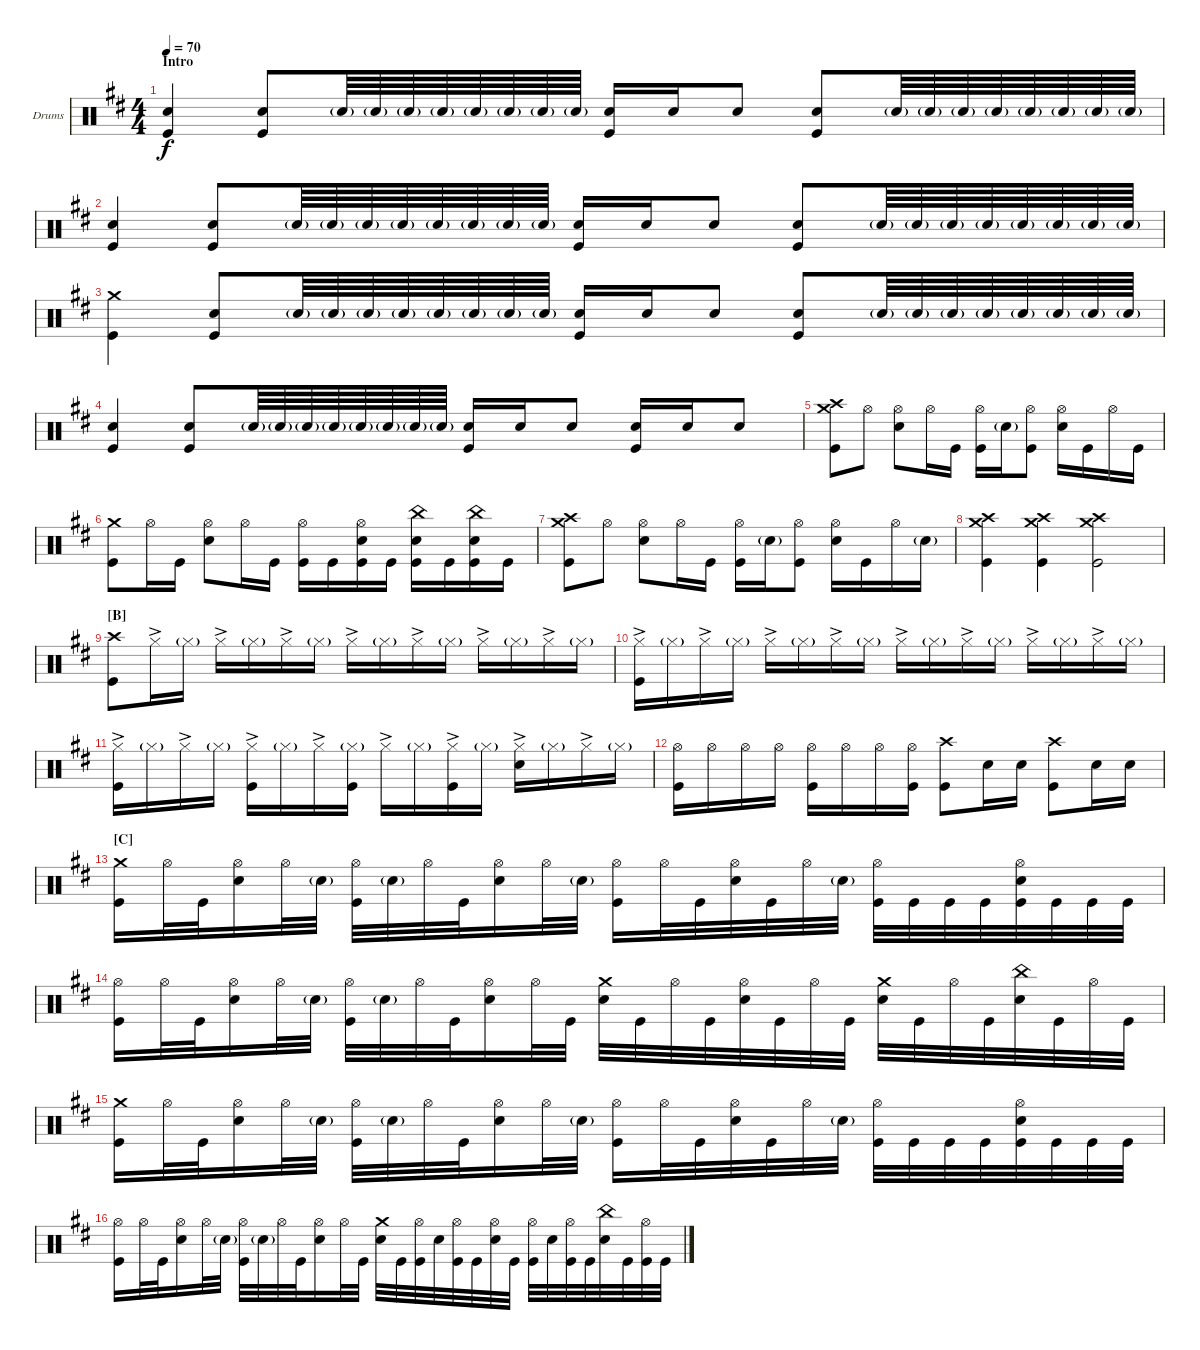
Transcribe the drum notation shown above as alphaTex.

\bracketExtendMode groupsimilarinstruments
\firstSystemTrackNameOrientation horizontal
\otherSystemsTrackNameOrientation horizontal
\track ("Drums" "Drums") {instrument percussion}
\staff {score}
\articulation defaults
\ts (4 4)
\beaming (8 2 2 2 2)
\section ("" "Intro")
\tempo 70
\clef neutral
\ks bminor
("Snare (hit) 2" "Kick (hit)").4{dy f} ("Snare (hit) 2" "Kick (hit)").8 "Snare (hit) 2"{g}.64 "Snare (hit) 2"{g}.64 "Snare (hit) 2"{g}.64 "Snare (hit) 2"{g}.64 "Snare (hit) 2"{g}.64 "Snare (hit) 2"{g}.64 "Snare (hit) 2"{g}.64 "Snare (hit) 2"{g}.64 ("Snare (hit) 2" "Kick (hit)").16 "Snare (hit) 2".16 "Snare (hit) 2".8 ("Snare (hit) 2" "Kick (hit)").8 "Snare (hit) 2"{g}.64 "Snare (hit) 2"{g}.64 "Snare (hit) 2"{g}.64 "Snare (hit) 2"{g}.64 "Snare (hit) 2"{g}.64 "Snare (hit) 2"{g}.64 "Snare (hit) 2"{g}.64 "Snare (hit) 2"{g}.64 |
("Snare (hit) 2" "Kick (hit)").4 ("Snare (hit) 2" "Kick (hit)").8 "Snare (hit) 2"{g}.64 "Snare (hit) 2"{g}.64 "Snare (hit) 2"{g}.64 "Snare (hit) 2"{g}.64 "Snare (hit) 2"{g}.64 "Snare (hit) 2"{g}.64 "Snare (hit) 2"{g}.64 "Snare (hit) 2"{g}.64 ("Snare (hit) 2" "Kick (hit)").16 "Snare (hit) 2".16 "Snare (hit) 2".8 ("Snare (hit) 2" "Kick (hit)").8 "Snare (hit) 2"{g}.64 "Snare (hit) 2"{g}.64 "Snare (hit) 2"{g}.64 "Snare (hit) 2"{g}.64 "Snare (hit) 2"{g}.64 "Snare (hit) 2"{g}.64 "Snare (hit) 2"{g}.64 "Snare (hit) 2"{g}.64 |
("Kick (hit)" "Crash medium (hit)").4 ("Snare (hit) 2" "Kick (hit)").8 "Snare (hit) 2"{g}.64 "Snare (hit) 2"{g}.64 "Snare (hit) 2"{g}.64 "Snare (hit) 2"{g}.64 "Snare (hit) 2"{g}.64 "Snare (hit) 2"{g}.64 "Snare (hit) 2"{g}.64 "Snare (hit) 2"{g}.64 ("Snare (hit) 2" "Kick (hit)").16 "Snare (hit) 2".16 "Snare (hit) 2".8 ("Snare (hit) 2" "Kick (hit)").8 "Snare (hit) 2"{g}.64 "Snare (hit) 2"{g}.64 "Snare (hit) 2"{g}.64 "Snare (hit) 2"{g}.64 "Snare (hit) 2"{g}.64 "Snare (hit) 2"{g}.64 "Snare (hit) 2"{g}.64 "Snare (hit) 2"{g}.64 |
("Snare (hit) 2" "Kick (hit)").4 ("Snare (hit) 2" "Kick (hit)").8 "Snare (hit) 2"{g}.64 "Snare (hit) 2"{g}.64 "Snare (hit) 2"{g}.64 "Snare (hit) 2"{g}.64 "Snare (hit) 2"{g}.64 "Snare (hit) 2"{g}.64 "Snare (hit) 2"{g}.64 "Snare (hit) 2"{g}.64 ("Snare (hit) 2" "Kick (hit)").16 "Snare (hit) 2".16 "Snare (hit) 2".8 ("Snare (hit) 2" "Kick (hit)").16 "Snare (hit) 2".16 "Snare (hit) 2".8 |
("Crash high (hit)" "Kick (hit)" "Crash medium (hit)").8 "Hi-Hat (open)".8 ("Hi-Hat (open)" "Snare (hit) 2").8 "Hi-Hat (open)".16 "Kick (hit)".16 ("Hi-Hat (open)" "Kick (hit)").16 "Snare (hit) 2"{g}.16 ("Hi-Hat (open)" "Kick (hit)").8 ("Hi-Hat (open)" "Snare (hit) 2").16 "Kick (hit)".16 "Hi-Hat (open)".16 "Kick (hit)".16 |
("Kick (hit)" "Crash medium (hit)").8 "Hi-Hat (open)".16 "Kick (hit)".16 ("Hi-Hat (open)" "Snare (hit) 2").8 "Hi-Hat (open)".16 "Kick (hit)".16 ("Hi-Hat (open)" "Kick (hit)").16 "Kick (hit)".16 ("Hi-Hat (open)" "Kick (hit)" "Snare (hit) 2").16 "Kick (hit)".16 ("China (hit)" "Snare (hit) 2" "Kick (hit)").16 "Kick (hit)".16 ("China (hit)" "Snare (hit) 2" "Kick (hit)").16 "Kick (hit)".16 |
("Crash high (hit)" "Kick (hit)" "Crash medium (hit)").8 "Hi-Hat (open)".8 ("Hi-Hat (open)" "Snare (hit) 2").8 "Hi-Hat (open)".16 "Kick (hit)".16 ("Hi-Hat (open)" "Kick (hit)").16 "Snare (hit) 2"{g}.16 ("Hi-Hat (open)" "Kick (hit)").8 ("Hi-Hat (open)" "Snare (hit) 2").16 "Kick (hit)".16 "Hi-Hat (open)".16 "Snare (hit) 2"{g}.16 |
("Crash high (hit)" "Kick (hit)" "Crash medium (hit)").4 ("Crash high (hit)" "Kick (hit)" "Crash medium (hit)").4 ("Crash high (hit)" "Kick (hit)" "Crash medium (hit)").2 |
\section ("B" "")
("Crash high (hit)" "Kick (hit)").8 "Hi-Hat (closed)"{ac}.16 "Hi-Hat (closed)"{g}.16 "Hi-Hat (closed)"{ac}.16 "Hi-Hat (closed)"{g}.16 "Hi-Hat (closed)"{ac}.16 "Hi-Hat (closed)"{g}.16 "Hi-Hat (closed)"{ac}.16 "Hi-Hat (closed)"{g}.16 "Hi-Hat (closed)"{ac}.16 "Hi-Hat (closed)"{g}.16 "Hi-Hat (closed)"{ac}.16 "Hi-Hat (closed)"{g}.16 "Hi-Hat (closed)"{ac}.16 "Hi-Hat (closed)"{g}.16 |
("Hi-Hat (closed)"{ac} "Kick (hit)").16 "Hi-Hat (closed)"{g}.16 "Hi-Hat (closed)"{ac}.16 "Hi-Hat (closed)"{g}.16 "Hi-Hat (closed)"{ac}.16 "Hi-Hat (closed)"{g}.16 "Hi-Hat (closed)"{ac}.16 "Hi-Hat (closed)"{g}.16 "Hi-Hat (closed)"{ac}.16 "Hi-Hat (closed)"{g}.16 "Hi-Hat (closed)"{ac}.16 "Hi-Hat (closed)"{g}.16 "Hi-Hat (closed)"{ac}.16 "Hi-Hat (closed)"{g}.16 "Hi-Hat (closed)"{ac}.16 "Hi-Hat (closed)"{g}.16 |
("Hi-Hat (closed)"{ac} "Kick (hit)").16 "Hi-Hat (closed)"{g}.16 "Hi-Hat (closed)"{ac}.16 "Hi-Hat (closed)"{g}.16 ("Hi-Hat (closed)"{ac} "Kick (hit)").16 "Hi-Hat (closed)"{g}.16 "Hi-Hat (closed)"{ac}.16 ("Hi-Hat (closed)"{g} "Kick (hit)").16 "Hi-Hat (closed)"{ac}.16 "Hi-Hat (closed)"{g}.16 ("Hi-Hat (closed)"{ac} "Kick (hit)").16 "Hi-Hat (closed)"{g}.16 ("Hi-Hat (closed)"{ac} "Snare (hit) 2").16 "Hi-Hat (closed)"{g}.16 "Hi-Hat (closed)"{ac}.16 "Hi-Hat (closed)"{g}.16 |
("Hi-Hat (open)" "Kick (hit)").16 "Hi-Hat (open)".16 "Hi-Hat (open)".16 "Hi-Hat (open)".16 ("Hi-Hat (open)" "Kick (hit)").16 "Hi-Hat (open)".16 "Hi-Hat (open)".16 ("Kick (hit)" "Hi-Hat (open)").16 ("Crash high (hit)" "Kick (hit)").8 "Snare (hit) 2".16 "Snare (hit) 2".16 ("Crash high (hit)" "Kick (hit)").8 "Snare (hit) 2".16 "Snare (hit) 2".16 |
\section ("C" "")
("Kick (hit)" "Crash medium (hit)").16 "Hi-Hat (open)".32 "Kick (hit)".32 ("Hi-Hat (open)" "Snare (hit) 2").16 "Hi-Hat (open)".32 "Snare (hit) 2"{g}.32 ("Hi-Hat (open)" "Kick (hit)").32 "Snare (hit) 2"{g}.32 "Hi-Hat (open)".32 "Kick (hit)".32 ("Hi-Hat (open)" "Snare (hit) 2").16 "Hi-Hat (open)".32 "Snare (hit) 2"{g}.32 ("Kick (hit)" "Hi-Hat (open)").16 "Hi-Hat (open)".32 "Kick (hit)".32 ("Hi-Hat (open)" "Snare (hit) 2").32 "Kick (hit)".32 "Hi-Hat (open)".32 "Snare (hit) 2"{g}.32 ("Hi-Hat (open)" "Kick (hit)").32 "Kick (hit)".32 "Kick (hit)".32 "Kick (hit)".32 ("Hi-Hat (open)" "Kick (hit)" "Snare (hit) 2").32 "Kick (hit)".32 "Kick (hit)".32 "Kick (hit)".32 |
("Kick (hit)" "Hi-Hat (open)").16 "Hi-Hat (open)".32 "Kick (hit)".32 ("Hi-Hat (open)" "Snare (hit) 2").16 "Hi-Hat (open)".32 "Snare (hit) 2"{g}.32 ("Hi-Hat (open)" "Kick (hit)").32 "Snare (hit) 2"{g}.32 "Hi-Hat (open)".32 "Kick (hit)".32 ("Hi-Hat (open)" "Snare (hit) 2").16 "Hi-Hat (open)".32 "Kick (hit)".32 ("Snare (hit) 2" "Crash medium (hit)").32 "Kick (hit)".32 "Hi-Hat (open)".32 "Kick (hit)".32 ("Hi-Hat (open)" "Snare (hit) 2").32 "Kick (hit)".32 "Hi-Hat (open)".32 "Kick (hit)".32 ("Snare (hit) 2" "Crash medium (hit)").32 "Kick (hit)".32 "Hi-Hat (open)".32 "Kick (hit)".32 ("Snare (hit) 2" "China (hit)").32 "Kick (hit)".32 "Hi-Hat (open)".32 "Kick (hit)".32 |
("Kick (hit)" "Crash medium (hit)").16 "Hi-Hat (open)".32 "Kick (hit)".32 ("Hi-Hat (open)" "Snare (hit) 2").16 "Hi-Hat (open)".32 "Snare (hit) 2"{g}.32 ("Hi-Hat (open)" "Kick (hit)").32 "Snare (hit) 2"{g}.32 "Hi-Hat (open)".32 "Kick (hit)".32 ("Hi-Hat (open)" "Snare (hit) 2").16 "Hi-Hat (open)".32 "Snare (hit) 2"{g}.32 ("Kick (hit)" "Hi-Hat (open)").16 "Hi-Hat (open)".32 "Kick (hit)".32 ("Hi-Hat (open)" "Snare (hit) 2").32 "Kick (hit)".32 "Hi-Hat (open)".32 "Snare (hit) 2"{g}.32 ("Hi-Hat (open)" "Kick (hit)").32 "Kick (hit)".32 "Kick (hit)".32 "Kick (hit)".32 ("Hi-Hat (open)" "Kick (hit)" "Snare (hit) 2").32 "Kick (hit)".32 "Kick (hit)".32 "Kick (hit)".32 |
("Kick (hit)" "Hi-Hat (open)").16 "Hi-Hat (open)".32 "Kick (hit)".32 ("Hi-Hat (open)" "Snare (hit) 2").16 "Hi-Hat (open)".32 "Snare (hit) 2"{g}.32 ("Hi-Hat (open)" "Kick (hit)").32 "Snare (hit) 2"{g}.32 "Hi-Hat (open)".32 "Kick (hit)".32 ("Hi-Hat (open)" "Snare (hit) 2").16 "Hi-Hat (open)".32 "Kick (hit)".32 ("Snare (hit) 2" "Crash medium (hit)").32 "Kick (hit)".32 ("Hi-Hat (open)" "Kick (hit)").32 "Snare (hit) 2".32 ("Hi-Hat (open)" "Kick (hit)").32 "Kick (hit)".32 ("Hi-Hat (open)" "Snare (hit) 2").32 "Kick (hit)".32 ("Hi-Hat (open)" "Kick (hit)").32 "Snare (hit) 2".32 ("Hi-Hat (open)" "Kick (hit)").32 "Kick (hit)".32 ("Snare (hit) 2" "China (hit)").32 "Kick (hit)".32 ("Hi-Hat (open)" "Kick (hit)").32 "Kick (hit)".32
